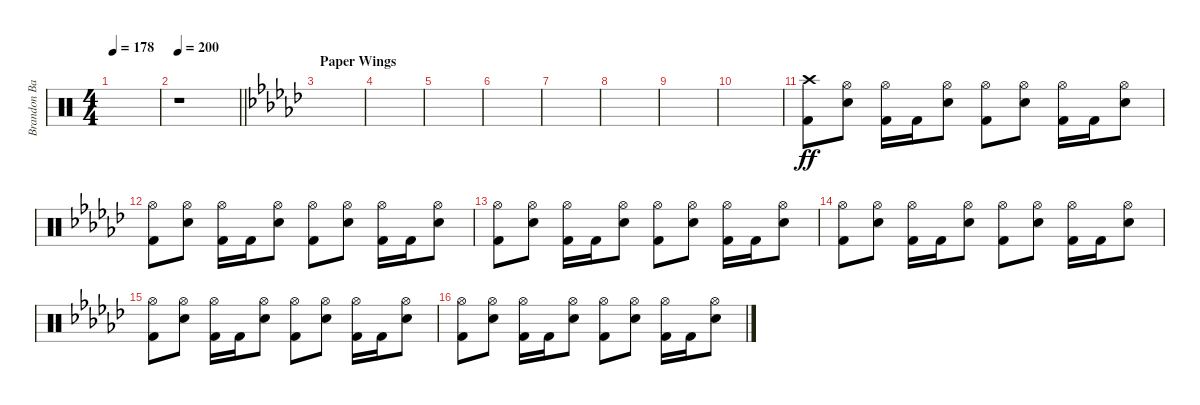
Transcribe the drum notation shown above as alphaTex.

\track ("Brandon Barnes - Drums" "Brandon Ba") {instrument percussion}
\staff {score}
\articulation defaults
\ts (4 4)
\tempo 178
\clef neutral
\ks c
|
\tempo 200
\barLineRight lightlight
r.1 |
\section ("" "Paper Wings")
\ks ebminor
|
|
|
|
|
|
|
|
("Crash high (hit)" "Kick (hit) 2").8{dy ff} ("Snare (hit) 2" "Hi-Hat (open)").8 ("Kick (hit) 2" "Hi-Hat (open)").16 "Kick (hit) 2".16 ("Snare (hit) 2" "Hi-Hat (open)").8 ("Kick (hit) 2" "Hi-Hat (open)").8 ("Snare (hit) 2" "Hi-Hat (open)").8 ("Kick (hit) 2" "Hi-Hat (open)").16 "Kick (hit) 2".16 ("Snare (hit) 2" "Hi-Hat (open)").8 |
("Kick (hit) 2" "Hi-Hat (open)").8 ("Snare (hit) 2" "Hi-Hat (open)").8 ("Kick (hit) 2" "Hi-Hat (open)").16 "Kick (hit) 2".16 ("Snare (hit) 2" "Hi-Hat (open)").8 ("Kick (hit) 2" "Hi-Hat (open)").8 ("Snare (hit) 2" "Hi-Hat (open)").8 ("Kick (hit) 2" "Hi-Hat (open)").16 "Kick (hit) 2".16 ("Snare (hit) 2" "Hi-Hat (open)").8 |
("Kick (hit) 2" "Hi-Hat (open)").8 ("Snare (hit) 2" "Hi-Hat (open)").8 ("Kick (hit) 2" "Hi-Hat (open)").16 "Kick (hit) 2".16 ("Snare (hit) 2" "Hi-Hat (open)").8 ("Kick (hit) 2" "Hi-Hat (open)").8 ("Snare (hit) 2" "Hi-Hat (open)").8 ("Kick (hit) 2" "Hi-Hat (open)").16 "Kick (hit) 2".16 ("Snare (hit) 2" "Hi-Hat (open)").8 |
("Kick (hit) 2" "Hi-Hat (open)").8 ("Snare (hit) 2" "Hi-Hat (open)").8 ("Kick (hit) 2" "Hi-Hat (open)").16 "Kick (hit) 2".16 ("Snare (hit) 2" "Hi-Hat (open)").8 ("Kick (hit) 2" "Hi-Hat (open)").8 ("Snare (hit) 2" "Hi-Hat (open)").8 ("Kick (hit) 2" "Hi-Hat (open)").16 "Kick (hit) 2".16 ("Snare (hit) 2" "Hi-Hat (open)").8 |
("Kick (hit) 2" "Hi-Hat (open)").8 ("Snare (hit) 2" "Hi-Hat (open)").8 ("Kick (hit) 2" "Hi-Hat (open)").16 "Kick (hit) 2".16 ("Snare (hit) 2" "Hi-Hat (open)").8 ("Kick (hit) 2" "Hi-Hat (open)").8 ("Snare (hit) 2" "Hi-Hat (open)").8 ("Kick (hit) 2" "Hi-Hat (open)").16 "Kick (hit) 2".16 ("Snare (hit) 2" "Hi-Hat (open)").8 |
("Kick (hit) 2" "Hi-Hat (open)").8 ("Snare (hit) 2" "Hi-Hat (open)").8 ("Kick (hit) 2" "Hi-Hat (open)").16 "Kick (hit) 2".16 ("Snare (hit) 2" "Hi-Hat (open)").8 ("Kick (hit) 2" "Hi-Hat (open)").8 ("Snare (hit) 2" "Hi-Hat (open)").8 ("Kick (hit) 2" "Hi-Hat (open)").16 "Kick (hit) 2".16 ("Snare (hit) 2" "Hi-Hat (open)").8
